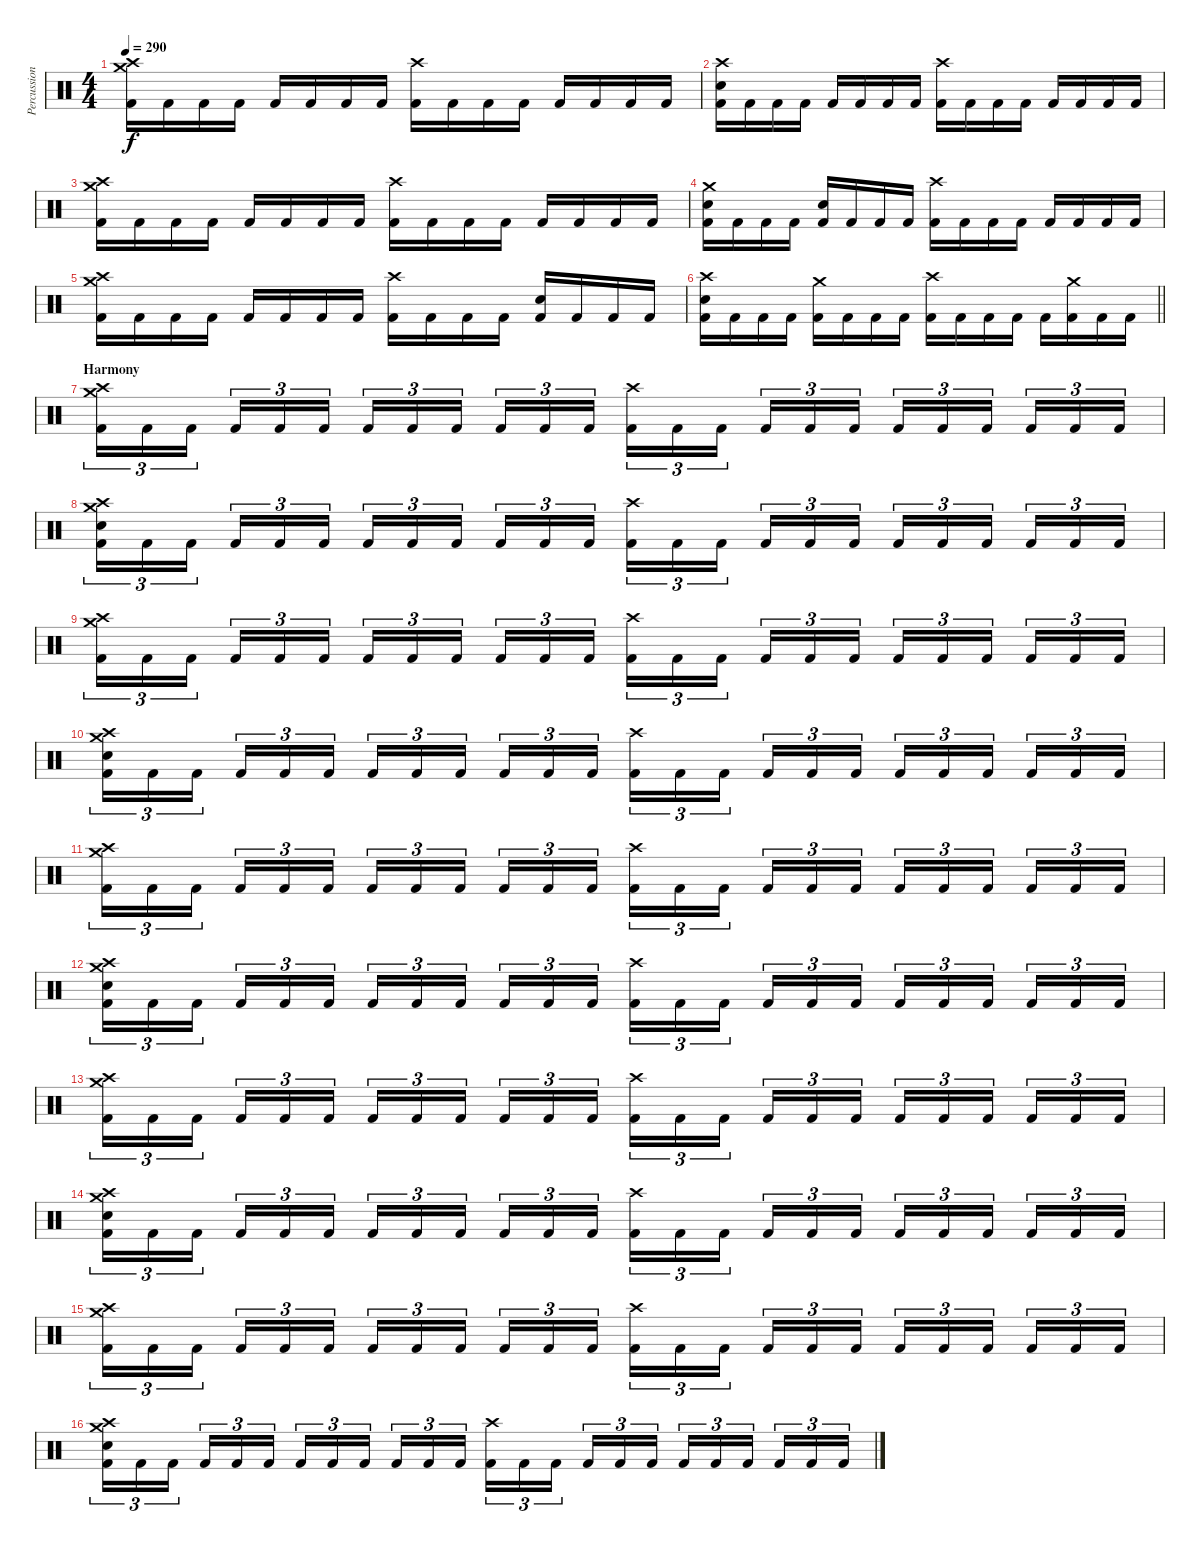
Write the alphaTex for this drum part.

\track ("Percussion" "Percussion") {instrument percussion}
\staff {score}
\articulation defaults
\ts (4 4)
\tempo 290
\clef neutral
\ks c
("Crash high (hit)" "Crash medium (hit)" "Kick (hit) 2").16{dy f} "Kick (hit) 2".16 "Kick (hit) 2".16 "Kick (hit) 2".16 "Kick (hit) 2".16 "Kick (hit) 2".16 "Kick (hit) 2".16 "Kick (hit) 2".16 ("Crash high (hit)" "Kick (hit) 2").16 "Kick (hit) 2".16 "Kick (hit) 2".16 "Kick (hit) 2".16 "Kick (hit) 2".16 "Kick (hit) 2".16 "Kick (hit) 2".16 "Kick (hit) 2".16 |
("Crash high (hit)" "Electric Snare (hit)" "Kick (hit) 2").16 "Kick (hit) 2".16 "Kick (hit) 2".16 "Kick (hit) 2".16 "Kick (hit) 2".16 "Kick (hit) 2".16 "Kick (hit) 2".16 "Kick (hit) 2".16 ("Crash high (hit)" "Kick (hit) 2").16 "Kick (hit) 2".16 "Kick (hit) 2".16 "Kick (hit) 2".16 "Kick (hit) 2".16 "Kick (hit) 2".16 "Kick (hit) 2".16 "Kick (hit) 2".16 |
("Crash high (hit)" "Crash medium (hit)" "Kick (hit) 2").16 "Kick (hit) 2".16 "Kick (hit) 2".16 "Kick (hit) 2".16 "Kick (hit) 2".16 "Kick (hit) 2".16 "Kick (hit) 2".16 "Kick (hit) 2".16 ("Crash high (hit)" "Kick (hit) 2").16 "Kick (hit) 2".16 "Kick (hit) 2".16 "Kick (hit) 2".16 "Kick (hit) 2".16 "Kick (hit) 2".16 "Kick (hit) 2".16 "Kick (hit) 2".16 |
("Crash medium (hit)" "Electric Snare (hit)" "Kick (hit) 2").16 "Kick (hit) 2".16 "Kick (hit) 2".16 "Kick (hit) 2".16 ("Electric Snare (hit)" "Kick (hit) 2").16 "Kick (hit) 2".16 "Kick (hit) 2".16 "Kick (hit) 2".16 ("Crash high (hit)" "Kick (hit) 2").16 "Kick (hit) 2".16 "Kick (hit) 2".16 "Kick (hit) 2".16 "Kick (hit) 2".16 "Kick (hit) 2".16 "Kick (hit) 2".16 "Kick (hit) 2".16 |
("Crash high (hit)" "Crash medium (hit)" "Kick (hit) 2").16 "Kick (hit) 2".16 "Kick (hit) 2".16 "Kick (hit) 2".16 "Kick (hit) 2".16 "Kick (hit) 2".16 "Kick (hit) 2".16 "Kick (hit) 2".16 ("Crash high (hit)" "Kick (hit) 2").16 "Kick (hit) 2".16 "Kick (hit) 2".16 "Kick (hit) 2".16 ("Electric Snare (hit)" "Kick (hit) 2").16 "Kick (hit) 2".16 "Kick (hit) 2".16 "Kick (hit) 2".16 |
\barLineRight lightlight
("Crash high (hit)" "Electric Snare (hit)" "Kick (hit) 2").16 "Kick (hit) 2".16 "Kick (hit) 2".16 "Kick (hit) 2".16 ("Crash medium (hit)" "Kick (hit) 2").16 "Kick (hit) 2".16 "Kick (hit) 2".16 "Kick (hit) 2".16 ("Crash high (hit)" "Kick (hit) 2").16 "Kick (hit) 2".16 "Kick (hit) 2".16 "Kick (hit) 2".16 "Kick (hit) 2".16 ("Crash medium (hit)" "Kick (hit) 2").16 "Kick (hit) 2".16 "Kick (hit) 2".16 |
\section ("" "Harmony")
("Crash high (hit)" "Crash medium (hit)" "Kick (hit) 2").16{tu (3 2)} "Kick (hit) 2".16{tu (3 2)} "Kick (hit) 2".16{tu (3 2) beam splitsecondary} "Kick (hit) 2".16{tu (3 2)} "Kick (hit) 2".16{tu (3 2)} "Kick (hit) 2".16{tu (3 2)} "Kick (hit) 2".16{tu (3 2)} "Kick (hit) 2".16{tu (3 2)} "Kick (hit) 2".16{tu (3 2) beam splitsecondary} "Kick (hit) 2".16{tu (3 2)} "Kick (hit) 2".16{tu (3 2)} "Kick (hit) 2".16{tu (3 2)} ("Crash high (hit)" "Kick (hit) 2").16{tu (3 2)} "Kick (hit) 2".16{tu (3 2)} "Kick (hit) 2".16{tu (3 2) beam splitsecondary} "Kick (hit) 2".16{tu (3 2)} "Kick (hit) 2".16{tu (3 2)} "Kick (hit) 2".16{tu (3 2)} "Kick (hit) 2".16{tu (3 2)} "Kick (hit) 2".16{tu (3 2)} "Kick (hit) 2".16{tu (3 2) beam splitsecondary} "Kick (hit) 2".16{tu (3 2)} "Kick (hit) 2".16{tu (3 2)} "Kick (hit) 2".16{tu (3 2)} |
("Crash high (hit)" "Crash medium (hit)" "Electric Snare (hit)" "Kick (hit) 2").16{tu (3 2)} "Kick (hit) 2".16{tu (3 2)} "Kick (hit) 2".16{tu (3 2) beam splitsecondary} "Kick (hit) 2".16{tu (3 2)} "Kick (hit) 2".16{tu (3 2)} "Kick (hit) 2".16{tu (3 2)} "Kick (hit) 2".16{tu (3 2)} "Kick (hit) 2".16{tu (3 2)} "Kick (hit) 2".16{tu (3 2) beam splitsecondary} "Kick (hit) 2".16{tu (3 2)} "Kick (hit) 2".16{tu (3 2)} "Kick (hit) 2".16{tu (3 2)} ("Crash high (hit)" "Kick (hit) 2").16{tu (3 2)} "Kick (hit) 2".16{tu (3 2)} "Kick (hit) 2".16{tu (3 2) beam splitsecondary} "Kick (hit) 2".16{tu (3 2)} "Kick (hit) 2".16{tu (3 2)} "Kick (hit) 2".16{tu (3 2)} "Kick (hit) 2".16{tu (3 2)} "Kick (hit) 2".16{tu (3 2)} "Kick (hit) 2".16{tu (3 2) beam splitsecondary} "Kick (hit) 2".16{tu (3 2)} "Kick (hit) 2".16{tu (3 2)} "Kick (hit) 2".16{tu (3 2)} |
("Crash high (hit)" "Crash medium (hit)" "Kick (hit) 2").16{tu (3 2)} "Kick (hit) 2".16{tu (3 2)} "Kick (hit) 2".16{tu (3 2) beam splitsecondary} "Kick (hit) 2".16{tu (3 2)} "Kick (hit) 2".16{tu (3 2)} "Kick (hit) 2".16{tu (3 2)} "Kick (hit) 2".16{tu (3 2)} "Kick (hit) 2".16{tu (3 2)} "Kick (hit) 2".16{tu (3 2) beam splitsecondary} "Kick (hit) 2".16{tu (3 2)} "Kick (hit) 2".16{tu (3 2)} "Kick (hit) 2".16{tu (3 2)} ("Crash high (hit)" "Kick (hit) 2").16{tu (3 2)} "Kick (hit) 2".16{tu (3 2)} "Kick (hit) 2".16{tu (3 2) beam splitsecondary} "Kick (hit) 2".16{tu (3 2)} "Kick (hit) 2".16{tu (3 2)} "Kick (hit) 2".16{tu (3 2)} "Kick (hit) 2".16{tu (3 2)} "Kick (hit) 2".16{tu (3 2)} "Kick (hit) 2".16{tu (3 2) beam splitsecondary} "Kick (hit) 2".16{tu (3 2)} "Kick (hit) 2".16{tu (3 2)} "Kick (hit) 2".16{tu (3 2)} |
("Crash high (hit)" "Crash medium (hit)" "Electric Snare (hit)" "Kick (hit) 2").16{tu (3 2)} "Kick (hit) 2".16{tu (3 2)} "Kick (hit) 2".16{tu (3 2) beam splitsecondary} "Kick (hit) 2".16{tu (3 2)} "Kick (hit) 2".16{tu (3 2)} "Kick (hit) 2".16{tu (3 2)} "Kick (hit) 2".16{tu (3 2)} "Kick (hit) 2".16{tu (3 2)} "Kick (hit) 2".16{tu (3 2) beam splitsecondary} "Kick (hit) 2".16{tu (3 2)} "Kick (hit) 2".16{tu (3 2)} "Kick (hit) 2".16{tu (3 2)} ("Crash high (hit)" "Kick (hit) 2").16{tu (3 2)} "Kick (hit) 2".16{tu (3 2)} "Kick (hit) 2".16{tu (3 2) beam splitsecondary} "Kick (hit) 2".16{tu (3 2)} "Kick (hit) 2".16{tu (3 2)} "Kick (hit) 2".16{tu (3 2)} "Kick (hit) 2".16{tu (3 2)} "Kick (hit) 2".16{tu (3 2)} "Kick (hit) 2".16{tu (3 2) beam splitsecondary} "Kick (hit) 2".16{tu (3 2)} "Kick (hit) 2".16{tu (3 2)} "Kick (hit) 2".16{tu (3 2)} |
("Crash high (hit)" "Crash medium (hit)" "Kick (hit) 2").16{tu (3 2)} "Kick (hit) 2".16{tu (3 2)} "Kick (hit) 2".16{tu (3 2) beam splitsecondary} "Kick (hit) 2".16{tu (3 2)} "Kick (hit) 2".16{tu (3 2)} "Kick (hit) 2".16{tu (3 2)} "Kick (hit) 2".16{tu (3 2)} "Kick (hit) 2".16{tu (3 2)} "Kick (hit) 2".16{tu (3 2) beam splitsecondary} "Kick (hit) 2".16{tu (3 2)} "Kick (hit) 2".16{tu (3 2)} "Kick (hit) 2".16{tu (3 2)} ("Crash high (hit)" "Kick (hit) 2").16{tu (3 2)} "Kick (hit) 2".16{tu (3 2)} "Kick (hit) 2".16{tu (3 2) beam splitsecondary} "Kick (hit) 2".16{tu (3 2)} "Kick (hit) 2".16{tu (3 2)} "Kick (hit) 2".16{tu (3 2)} "Kick (hit) 2".16{tu (3 2)} "Kick (hit) 2".16{tu (3 2)} "Kick (hit) 2".16{tu (3 2) beam splitsecondary} "Kick (hit) 2".16{tu (3 2)} "Kick (hit) 2".16{tu (3 2)} "Kick (hit) 2".16{tu (3 2)} |
("Crash high (hit)" "Crash medium (hit)" "Electric Snare (hit)" "Kick (hit) 2").16{tu (3 2)} "Kick (hit) 2".16{tu (3 2)} "Kick (hit) 2".16{tu (3 2) beam splitsecondary} "Kick (hit) 2".16{tu (3 2)} "Kick (hit) 2".16{tu (3 2)} "Kick (hit) 2".16{tu (3 2)} "Kick (hit) 2".16{tu (3 2)} "Kick (hit) 2".16{tu (3 2)} "Kick (hit) 2".16{tu (3 2) beam splitsecondary} "Kick (hit) 2".16{tu (3 2)} "Kick (hit) 2".16{tu (3 2)} "Kick (hit) 2".16{tu (3 2)} ("Crash high (hit)" "Kick (hit) 2").16{tu (3 2)} "Kick (hit) 2".16{tu (3 2)} "Kick (hit) 2".16{tu (3 2) beam splitsecondary} "Kick (hit) 2".16{tu (3 2)} "Kick (hit) 2".16{tu (3 2)} "Kick (hit) 2".16{tu (3 2)} "Kick (hit) 2".16{tu (3 2)} "Kick (hit) 2".16{tu (3 2)} "Kick (hit) 2".16{tu (3 2) beam splitsecondary} "Kick (hit) 2".16{tu (3 2)} "Kick (hit) 2".16{tu (3 2)} "Kick (hit) 2".16{tu (3 2)} |
("Crash high (hit)" "Crash medium (hit)" "Kick (hit) 2").16{tu (3 2)} "Kick (hit) 2".16{tu (3 2)} "Kick (hit) 2".16{tu (3 2) beam splitsecondary} "Kick (hit) 2".16{tu (3 2)} "Kick (hit) 2".16{tu (3 2)} "Kick (hit) 2".16{tu (3 2)} "Kick (hit) 2".16{tu (3 2)} "Kick (hit) 2".16{tu (3 2)} "Kick (hit) 2".16{tu (3 2) beam splitsecondary} "Kick (hit) 2".16{tu (3 2)} "Kick (hit) 2".16{tu (3 2)} "Kick (hit) 2".16{tu (3 2)} ("Crash high (hit)" "Kick (hit) 2").16{tu (3 2)} "Kick (hit) 2".16{tu (3 2)} "Kick (hit) 2".16{tu (3 2) beam splitsecondary} "Kick (hit) 2".16{tu (3 2)} "Kick (hit) 2".16{tu (3 2)} "Kick (hit) 2".16{tu (3 2)} "Kick (hit) 2".16{tu (3 2)} "Kick (hit) 2".16{tu (3 2)} "Kick (hit) 2".16{tu (3 2) beam splitsecondary} "Kick (hit) 2".16{tu (3 2)} "Kick (hit) 2".16{tu (3 2)} "Kick (hit) 2".16{tu (3 2)} |
("Crash high (hit)" "Crash medium (hit)" "Electric Snare (hit)" "Kick (hit) 2").16{tu (3 2)} "Kick (hit) 2".16{tu (3 2)} "Kick (hit) 2".16{tu (3 2) beam splitsecondary} "Kick (hit) 2".16{tu (3 2)} "Kick (hit) 2".16{tu (3 2)} "Kick (hit) 2".16{tu (3 2)} "Kick (hit) 2".16{tu (3 2)} "Kick (hit) 2".16{tu (3 2)} "Kick (hit) 2".16{tu (3 2) beam splitsecondary} "Kick (hit) 2".16{tu (3 2)} "Kick (hit) 2".16{tu (3 2)} "Kick (hit) 2".16{tu (3 2)} ("Crash high (hit)" "Kick (hit) 2").16{tu (3 2)} "Kick (hit) 2".16{tu (3 2)} "Kick (hit) 2".16{tu (3 2) beam splitsecondary} "Kick (hit) 2".16{tu (3 2)} "Kick (hit) 2".16{tu (3 2)} "Kick (hit) 2".16{tu (3 2)} "Kick (hit) 2".16{tu (3 2)} "Kick (hit) 2".16{tu (3 2)} "Kick (hit) 2".16{tu (3 2) beam splitsecondary} "Kick (hit) 2".16{tu (3 2)} "Kick (hit) 2".16{tu (3 2)} "Kick (hit) 2".16{tu (3 2)} |
("Crash high (hit)" "Crash medium (hit)" "Kick (hit) 2").16{tu (3 2)} "Kick (hit) 2".16{tu (3 2)} "Kick (hit) 2".16{tu (3 2) beam splitsecondary} "Kick (hit) 2".16{tu (3 2)} "Kick (hit) 2".16{tu (3 2)} "Kick (hit) 2".16{tu (3 2)} "Kick (hit) 2".16{tu (3 2)} "Kick (hit) 2".16{tu (3 2)} "Kick (hit) 2".16{tu (3 2) beam splitsecondary} "Kick (hit) 2".16{tu (3 2)} "Kick (hit) 2".16{tu (3 2)} "Kick (hit) 2".16{tu (3 2)} ("Crash high (hit)" "Kick (hit) 2").16{tu (3 2)} "Kick (hit) 2".16{tu (3 2)} "Kick (hit) 2".16{tu (3 2) beam splitsecondary} "Kick (hit) 2".16{tu (3 2)} "Kick (hit) 2".16{tu (3 2)} "Kick (hit) 2".16{tu (3 2)} "Kick (hit) 2".16{tu (3 2)} "Kick (hit) 2".16{tu (3 2)} "Kick (hit) 2".16{tu (3 2) beam splitsecondary} "Kick (hit) 2".16{tu (3 2)} "Kick (hit) 2".16{tu (3 2)} "Kick (hit) 2".16{tu (3 2)} |
("Crash high (hit)" "Crash medium (hit)" "Electric Snare (hit)" "Kick (hit) 2").16{tu (3 2)} "Kick (hit) 2".16{tu (3 2)} "Kick (hit) 2".16{tu (3 2) beam splitsecondary} "Kick (hit) 2".16{tu (3 2)} "Kick (hit) 2".16{tu (3 2)} "Kick (hit) 2".16{tu (3 2)} "Kick (hit) 2".16{tu (3 2)} "Kick (hit) 2".16{tu (3 2)} "Kick (hit) 2".16{tu (3 2) beam splitsecondary} "Kick (hit) 2".16{tu (3 2)} "Kick (hit) 2".16{tu (3 2)} "Kick (hit) 2".16{tu (3 2)} ("Crash high (hit)" "Kick (hit) 2").16{tu (3 2)} "Kick (hit) 2".16{tu (3 2)} "Kick (hit) 2".16{tu (3 2) beam splitsecondary} "Kick (hit) 2".16{tu (3 2)} "Kick (hit) 2".16{tu (3 2)} "Kick (hit) 2".16{tu (3 2)} "Kick (hit) 2".16{tu (3 2)} "Kick (hit) 2".16{tu (3 2)} "Kick (hit) 2".16{tu (3 2) beam splitsecondary} "Kick (hit) 2".16{tu (3 2)} "Kick (hit) 2".16{tu (3 2)} "Kick (hit) 2".16{tu (3 2)}
